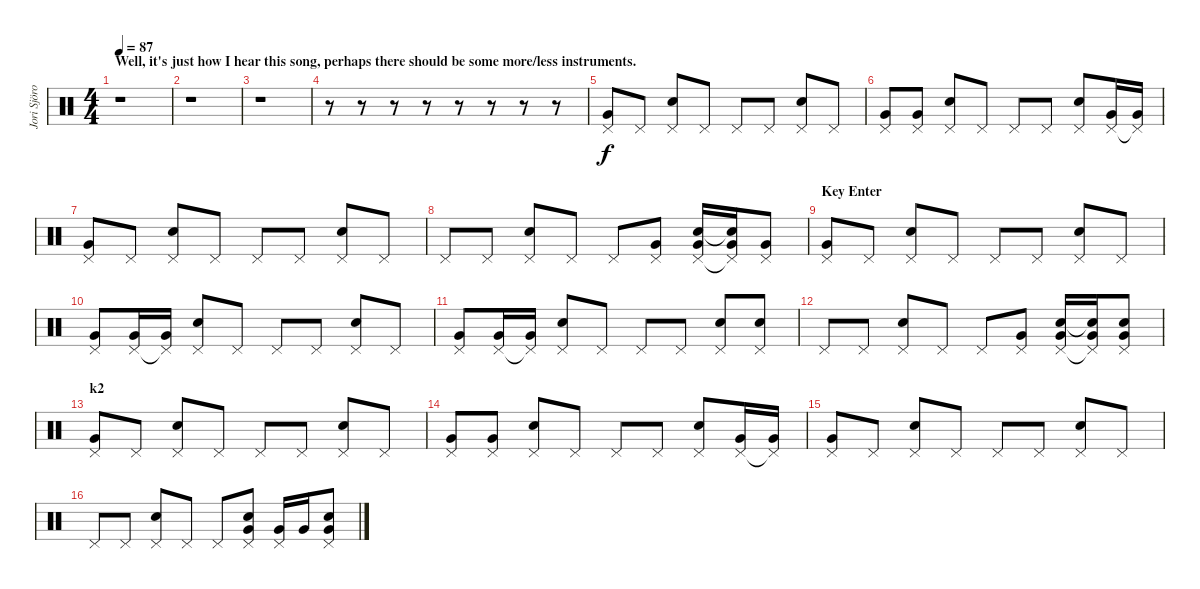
\track ("Jori Sjöroos" "Jori Sjöro") {instrument percussion}
\staff {score}
\articulation defaults
\ts (4 4)
\section ("" "Well, it's just how I hear this song, perhaps there should be some more/less instruments.")
\tempo 87
\clef neutral
\ks c
r.1{dy f} |
r.1 |
r.1 |
r.8 r.8 r.8 r.8 r.8 r.8 r.8 r.8 |
("Pedal Hi-Hat (hit)" "Very Low Tom (hit)").8 "Pedal Hi-Hat (hit)".8 ("Snare (hit) 2" "Pedal Hi-Hat (hit)").8 "Pedal Hi-Hat (hit)".8 "Pedal Hi-Hat (hit)".8 "Pedal Hi-Hat (hit)".8 ("Snare (hit) 2" "Pedal Hi-Hat (hit)").8 "Pedal Hi-Hat (hit)".8 |
("Pedal Hi-Hat (hit)" "Very Low Tom (hit)").8 ("Pedal Hi-Hat (hit)" "Very Low Tom (hit)").8 ("Snare (hit) 2" "Pedal Hi-Hat (hit)").8 "Pedal Hi-Hat (hit)".8 "Pedal Hi-Hat (hit)".8 "Pedal Hi-Hat (hit)".8 ("Snare (hit) 2" "Pedal Hi-Hat (hit)").8 ("Pedal Hi-Hat (hit)" "Very Low Tom (hit)").16 ("Pedal Hi-Hat (hit)"{t} "Very Low Tom (hit)").16 |
("Pedal Hi-Hat (hit)" "Very Low Tom (hit)").8 "Pedal Hi-Hat (hit)".8 ("Snare (hit) 2" "Pedal Hi-Hat (hit)").8 "Pedal Hi-Hat (hit)".8 "Pedal Hi-Hat (hit)".8 "Pedal Hi-Hat (hit)".8 ("Snare (hit) 2" "Pedal Hi-Hat (hit)").8 "Pedal Hi-Hat (hit)".8 |
"Pedal Hi-Hat (hit)".8 "Pedal Hi-Hat (hit)".8 ("Snare (hit) 2" "Pedal Hi-Hat (hit)").8 "Pedal Hi-Hat (hit)".8 "Pedal Hi-Hat (hit)".8 ("Pedal Hi-Hat (hit)" "Very Low Tom (hit)").8 ("Snare (hit) 2" "Pedal Hi-Hat (hit)" "Very Low Tom (hit)").16 ("Snare (hit) 2"{t} "Pedal Hi-Hat (hit)"{t} "Very Low Tom (hit)").16 ("Pedal Hi-Hat (hit)" "Very Low Tom (hit)").8 |
\section ("" "Key Enter")
("Pedal Hi-Hat (hit)" "Very Low Tom (hit)").8 "Pedal Hi-Hat (hit)".8 ("Snare (hit) 2" "Pedal Hi-Hat (hit)").8 "Pedal Hi-Hat (hit)".8 "Pedal Hi-Hat (hit)".8 "Pedal Hi-Hat (hit)".8 ("Snare (hit) 2" "Pedal Hi-Hat (hit)").8 "Pedal Hi-Hat (hit)".8 |
("Pedal Hi-Hat (hit)" "Very Low Tom (hit)").8 ("Pedal Hi-Hat (hit)" "Very Low Tom (hit)").16 ("Pedal Hi-Hat (hit)"{t} "Very Low Tom (hit)").16 ("Snare (hit) 2" "Pedal Hi-Hat (hit)").8 "Pedal Hi-Hat (hit)".8 "Pedal Hi-Hat (hit)".8 "Pedal Hi-Hat (hit)".8 ("Snare (hit) 2" "Pedal Hi-Hat (hit)").8 "Pedal Hi-Hat (hit)".8 |
("Pedal Hi-Hat (hit)" "Very Low Tom (hit)").8 ("Pedal Hi-Hat (hit)" "Very Low Tom (hit)").16 ("Pedal Hi-Hat (hit)"{t} "Very Low Tom (hit)").16 ("Snare (hit) 2" "Pedal Hi-Hat (hit)").8 "Pedal Hi-Hat (hit)".8 "Pedal Hi-Hat (hit)".8 "Pedal Hi-Hat (hit)".8 ("Snare (hit) 2" "Pedal Hi-Hat (hit)").8 ("Snare (hit) 2" "Pedal Hi-Hat (hit)").8 |
"Pedal Hi-Hat (hit)".8 "Pedal Hi-Hat (hit)".8 ("Snare (hit) 2" "Pedal Hi-Hat (hit)").8 "Pedal Hi-Hat (hit)".8 "Pedal Hi-Hat (hit)".8 ("Pedal Hi-Hat (hit)" "Very Low Tom (hit)").8 ("Snare (hit) 2" "Pedal Hi-Hat (hit)" "Very Low Tom (hit)").16 ("Snare (hit) 2"{t} "Pedal Hi-Hat (hit)"{t} "Very Low Tom (hit)").16 ("Snare (hit) 2" "Pedal Hi-Hat (hit)" "Very Low Tom (hit)").8 |
\section ("" "k2")
("Pedal Hi-Hat (hit)" "Very Low Tom (hit)").8 "Pedal Hi-Hat (hit)".8 ("Snare (hit) 2" "Pedal Hi-Hat (hit)").8 "Pedal Hi-Hat (hit)".8 "Pedal Hi-Hat (hit)".8 "Pedal Hi-Hat (hit)".8 ("Snare (hit) 2" "Pedal Hi-Hat (hit)").8 "Pedal Hi-Hat (hit)".8 |
("Pedal Hi-Hat (hit)" "Very Low Tom (hit)").8 ("Pedal Hi-Hat (hit)" "Very Low Tom (hit)").8 ("Snare (hit) 2" "Pedal Hi-Hat (hit)").8 "Pedal Hi-Hat (hit)".8 "Pedal Hi-Hat (hit)".8 "Pedal Hi-Hat (hit)".8 ("Snare (hit) 2" "Pedal Hi-Hat (hit)").8 ("Pedal Hi-Hat (hit)" "Very Low Tom (hit)").16 ("Pedal Hi-Hat (hit)"{t} "Very Low Tom (hit)").16 |
("Pedal Hi-Hat (hit)" "Very Low Tom (hit)").8 "Pedal Hi-Hat (hit)".8 ("Snare (hit) 2" "Pedal Hi-Hat (hit)").8 "Pedal Hi-Hat (hit)".8 "Pedal Hi-Hat (hit)".8 "Pedal Hi-Hat (hit)".8 ("Snare (hit) 2" "Pedal Hi-Hat (hit)").8 "Pedal Hi-Hat (hit)".8 |
"Pedal Hi-Hat (hit)".8 "Pedal Hi-Hat (hit)".8 ("Snare (hit) 2" "Pedal Hi-Hat (hit)").8 "Pedal Hi-Hat (hit)".8 "Pedal Hi-Hat (hit)".8 ("Snare (hit) 2" "Pedal Hi-Hat (hit)" "Very Low Tom (hit)").8 ("Pedal Hi-Hat (hit)" "Very Low Tom (hit)").16 "Very Low Tom (hit)".16 ("Snare (hit) 2" "Pedal Hi-Hat (hit)" "Very Low Tom (hit)").8
